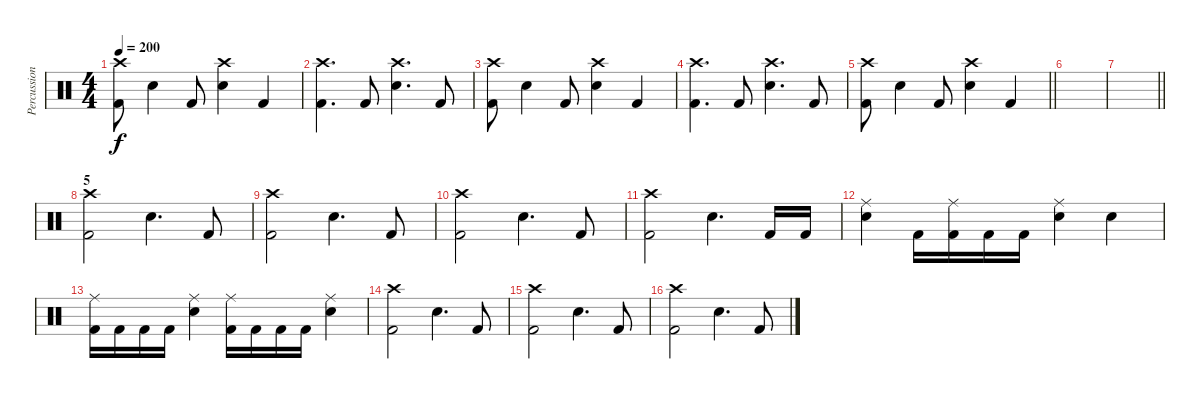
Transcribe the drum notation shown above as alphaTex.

\track ("Percussion" "Percussion") {instrument percussion}
\staff {score}
\articulation defaults
\ts (4 4)
\tempo 200
\clef neutral
\ks c
("Crash high (hit)" "Kick (hit) 2").8{dy f} "Snare (hit) 2".4 "Kick (hit) 2".8 ("Crash high (hit)" "Snare (hit) 2").4 "Kick (hit) 2".4 |
("Crash high (hit)" "Kick (hit) 2").4{d} "Kick (hit) 2".8 ("Crash high (hit)" "Snare (hit) 2").4{d} "Kick (hit) 2".8 |
("Crash high (hit)" "Kick (hit) 2").8 "Snare (hit) 2".4 "Kick (hit) 2".8 ("Crash high (hit)" "Snare (hit) 2").4 "Kick (hit) 2".4 |
("Crash high (hit)" "Kick (hit) 2").4{d} "Kick (hit) 2".8 ("Crash high (hit)" "Snare (hit) 2").4{d} "Kick (hit) 2".8 |
\barLineRight lightlight
("Crash high (hit)" "Kick (hit) 2").8 "Snare (hit) 2".4 "Kick (hit) 2".8 ("Crash high (hit)" "Snare (hit) 2").4 "Kick (hit) 2".4 |
|
\barLineRight lightlight
|
\section ("" "5")
("Crash high (hit)" "Kick (hit) 2").2 "Snare (hit) 2".4{d} "Kick (hit) 2".8 |
("Crash high (hit)" "Kick (hit) 2").2 "Snare (hit) 2".4{d} "Kick (hit) 2".8 |
("Crash high (hit)" "Kick (hit) 2").2 "Snare (hit) 2".4{d} "Kick (hit) 2".8 |
("Crash high (hit)" "Kick (hit) 2").2 "Snare (hit) 2".4{d} "Kick (hit) 2".16 "Kick (hit) 2".16 |
("Ride (middle)" "Snare (hit) 2").4 "Kick (hit) 2".16 ("Ride (middle)" "Kick (hit) 2").16 "Kick (hit) 2".16 "Kick (hit) 2".16 ("Ride (middle)" "Snare (hit) 2").4 "Snare (hit) 2".4 |
("Ride (middle)" "Kick (hit) 2").16 "Kick (hit) 2".16 "Kick (hit) 2".16 "Kick (hit) 2".16 ("Ride (middle)" "Snare (hit) 2").4 ("Ride (middle)" "Kick (hit) 2").16 "Kick (hit) 2".16 "Kick (hit) 2".16 "Kick (hit) 2".16 ("Ride (middle)" "Snare (hit) 2").4 |
("Crash high (hit)" "Kick (hit) 2").2 "Snare (hit) 2".4{d} "Kick (hit) 2".8 |
("Crash high (hit)" "Kick (hit) 2").2 "Snare (hit) 2".4{d} "Kick (hit) 2".8 |
("Crash high (hit)" "Kick (hit) 2").2 "Snare (hit) 2".4{d} "Kick (hit) 2".8
